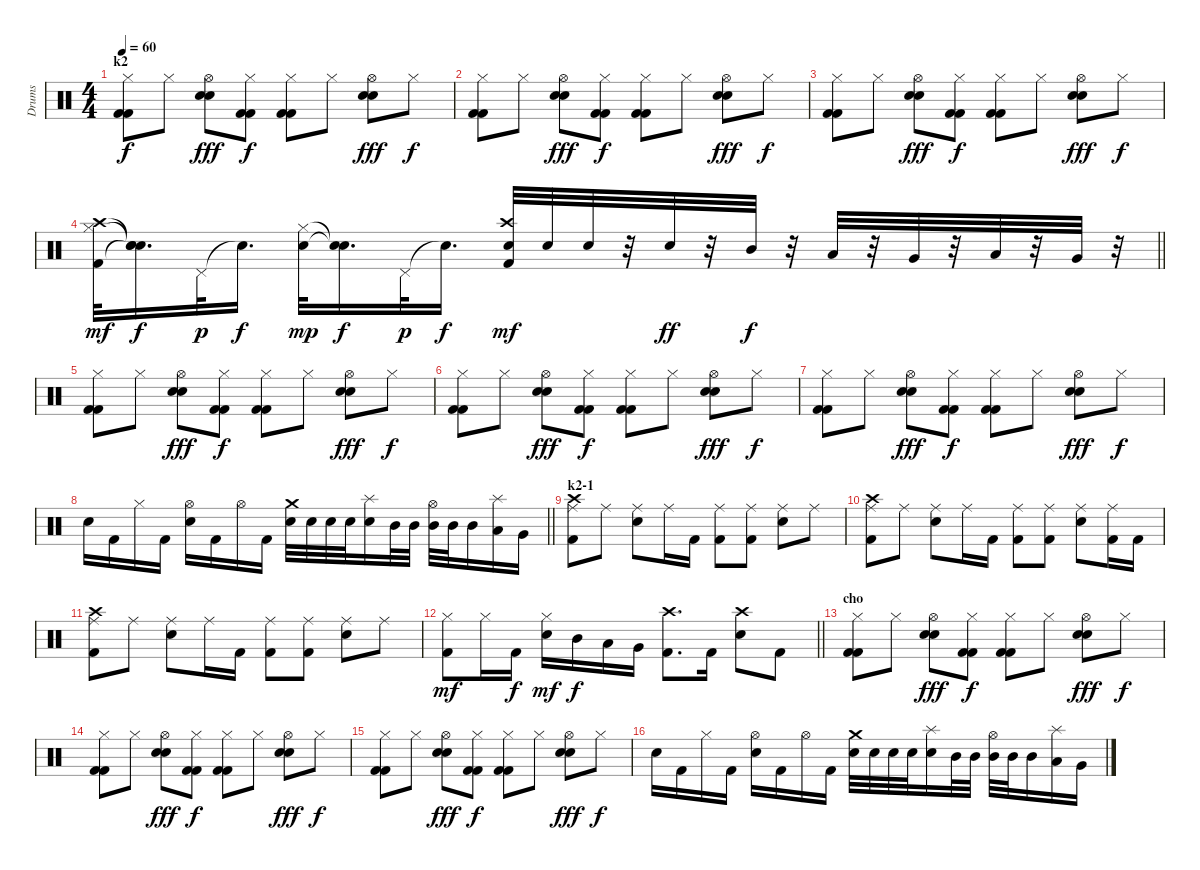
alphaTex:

\track ("Drums" "Drums") {instrument percussion}
\staff {score}
\articulation defaults
\ts (4 4)
\section ("" "k2")
\tempo 60
\clef neutral
\ks c
("Hi-Hat (closed)" "Kick (hit) 2" "Kick (hit) 2").8{dy f} "Hi-Hat (closed)".8 ("Hi-Hat (open)" "Electric Snare (hit)" "Electric Snare (hit)").8{dy fff} ("Hi-Hat (closed)" "Kick (hit) 2" "Kick (hit) 2").8{dy f} ("Hi-Hat (closed)" "Kick (hit) 2" "Kick (hit) 2").8 "Hi-Hat (closed)".8 ("Hi-Hat (open)" "Electric Snare (hit)" "Electric Snare (hit)").8{dy fff} "Hi-Hat (closed)".8{dy f} |
("Hi-Hat (closed)" "Kick (hit) 2" "Kick (hit) 2").8 "Hi-Hat (closed)".8 ("Hi-Hat (open)" "Electric Snare (hit)" "Electric Snare (hit)").8{dy fff} ("Hi-Hat (closed)" "Kick (hit) 2" "Kick (hit) 2").8{dy f} ("Hi-Hat (closed)" "Kick (hit) 2" "Kick (hit) 2").8 "Hi-Hat (closed)".8 ("Hi-Hat (open)" "Electric Snare (hit)" "Electric Snare (hit)").8{dy fff} "Hi-Hat (closed)".8{dy f} |
("Hi-Hat (closed)" "Kick (hit) 2" "Kick (hit) 2").8 "Hi-Hat (closed)".8 ("Hi-Hat (open)" "Electric Snare (hit)" "Electric Snare (hit)").8{dy fff} ("Hi-Hat (closed)" "Kick (hit) 2" "Kick (hit) 2").8{dy f} ("Hi-Hat (closed)" "Kick (hit) 2" "Kick (hit) 2").8 "Hi-Hat (closed)".8 ("Hi-Hat (open)" "Electric Snare (hit)" "Electric Snare (hit)").8{dy fff} "Hi-Hat (closed)".8{dy f} |
\barLineRight lightlight
("Kick (hit) 2" "Hi-Hat (closed)" "Crash high (hit)").32{dy mf} ("Snare (hit)"{t} "Snare (hit)"{t} "Snare (hit)"{t}).16{d dy f} "Pedal Hi-Hat (hit)".32{dy p} "Snare (hit)"{t}.16{d dy f} ("Snare (hit) 2" "Hi-Hat (closed)").32{dy mp} ("Snare (hit)"{t} "Snare (hit)"{t}).16{d dy f} "Pedal Hi-Hat (hit)".32{dy p} "Snare (hit)"{t}.16{d dy f} ("Snare (hit) 2" "Kick (hit) 2" "Crash high (hit)").32{dy mf} "Snare (hit) 2".32 "Snare (hit) 2".32 r.32 "Snare (hit) 2".32{dy ff} r.32 "Mid Tom (hit)".32{dy f} r.32 "Low Tom (hit)".32 r.32 "Very Low Tom (hit)".32 r.32 "Low Floor Tom (hit)".32 r.32 "Very Low Tom (hit)".32 r.32 |
("Hi-Hat (closed)" "Kick (hit) 2" "Kick (hit) 2").8 "Hi-Hat (closed)".8 ("Hi-Hat (open)" "Electric Snare (hit)" "Electric Snare (hit)").8{dy fff} ("Hi-Hat (closed)" "Kick (hit) 2" "Kick (hit) 2").8{dy f} ("Hi-Hat (closed)" "Kick (hit) 2" "Kick (hit) 2").8 "Hi-Hat (closed)".8 ("Hi-Hat (open)" "Electric Snare (hit)" "Electric Snare (hit)").8{dy fff} "Hi-Hat (closed)".8{dy f} |
("Hi-Hat (closed)" "Kick (hit) 2" "Kick (hit) 2").8 "Hi-Hat (closed)".8 ("Hi-Hat (open)" "Electric Snare (hit)" "Electric Snare (hit)").8{dy fff} ("Hi-Hat (closed)" "Kick (hit) 2" "Kick (hit) 2").8{dy f} ("Hi-Hat (closed)" "Kick (hit) 2" "Kick (hit) 2").8 "Hi-Hat (closed)".8 ("Hi-Hat (open)" "Electric Snare (hit)" "Electric Snare (hit)").8{dy fff} "Hi-Hat (closed)".8{dy f} |
("Hi-Hat (closed)" "Kick (hit) 2" "Kick (hit) 2").8 "Hi-Hat (closed)".8 ("Hi-Hat (open)" "Electric Snare (hit)" "Electric Snare (hit)").8{dy fff} ("Hi-Hat (closed)" "Kick (hit) 2" "Kick (hit) 2").8{dy f} ("Hi-Hat (closed)" "Kick (hit) 2" "Kick (hit) 2").8 "Hi-Hat (closed)".8 ("Hi-Hat (open)" "Electric Snare (hit)" "Electric Snare (hit)").8{dy fff} "Hi-Hat (closed)".8{dy f} |
\barLineRight lightlight "Snare (hit) 2".16 "Kick (hit) 2".16 "Hi-Hat (closed)".16 "Kick (hit) 2".16
("Hi-Hat (open)" "Snare (hit) 2").16 "Kick (hit) 2".16 "Hi-Hat (open)".16 "Kick (hit) 2".16 ("Crash medium (hit)" "Snare (hit) 2").32 "Snare (hit) 2".32 "Snare (hit) 2".32 "Snare (hit) 2".32 ("Splash (hit)" "Snare (hit) 2").16 "Mid Tom (hit)".32 "Mid Tom (hit)".32 ("Hi-Hat (open)" "Mid Tom (hit)").32 "Mid Tom (hit)".32 "Mid Tom (hit)".16 ("Splash (hit)" "Low Tom (hit)").16 "Very Low Tom (hit)".16 |
\section ("" "k2-1")
("Kick (hit) 2" "Crash high (hit)" "Ride (middle)").8 "Ride (middle)".8 ("Electric Snare (hit)" "Ride (middle)").8 "Ride (middle)".16 "Kick (hit) 2".16 ("Kick (hit) 2" "Ride (middle)").8 ("Kick (hit) 2" "Ride (middle)").8 ("Electric Snare (hit)" "Ride (middle)").8 "Ride (middle)".8 |
("Kick (hit) 2" "Crash high (hit)" "Ride (middle)").8 "Ride (middle)".8 ("Electric Snare (hit)" "Ride (middle)").8 "Ride (middle)".16 "Kick (hit) 2".16 ("Kick (hit) 2" "Ride (middle)").8 ("Kick (hit) 2" "Ride (middle)").8 ("Electric Snare (hit)" "Ride (middle)").8 ("Kick (hit) 2" "Ride (middle)").16 "Kick (hit) 2".16 |
("Kick (hit) 2" "Crash high (hit)" "Ride (middle)").8 "Ride (middle)".8 ("Electric Snare (hit)" "Ride (middle)").8 "Ride (middle)".16 "Kick (hit) 2".16 ("Kick (hit) 2" "Ride (middle)").8 ("Kick (hit) 2" "Ride (middle)").8 ("Electric Snare (hit)" "Ride (middle)").8 "Ride (middle)".8 |
\barLineRight lightlight
("Hi-Hat (closed)" "Kick (hit) 2").8{dy mf} "Hi-Hat (closed)".16 "Kick (hit) 2".16{dy f} ("Hi-Hat (closed)" "Snare (hit) 2").16{dy mf} "Mid Tom (hit)".16{dy f} "Low Tom (hit)".16 "Very Low Tom (hit)".16 ("Crash high (hit)" "Kick (hit) 2").8{d} "Kick (hit) 2".16 ("Crash high (hit)" "Snare (hit) 2").8 "Kick (hit) 2".8 |
\section ("" "cho")
("Hi-Hat (closed)" "Kick (hit) 2" "Kick (hit) 2").8 "Hi-Hat (closed)".8 ("Hi-Hat (open)" "Electric Snare (hit)" "Electric Snare (hit)").8{dy fff} ("Hi-Hat (closed)" "Kick (hit) 2" "Kick (hit) 2").8{dy f} ("Hi-Hat (closed)" "Kick (hit) 2" "Kick (hit) 2").8 "Hi-Hat (closed)".8 ("Hi-Hat (open)" "Electric Snare (hit)" "Electric Snare (hit)").8{dy fff} "Hi-Hat (closed)".8{dy f} |
("Hi-Hat (closed)" "Kick (hit) 2" "Kick (hit) 2").8 "Hi-Hat (closed)".8 ("Hi-Hat (open)" "Electric Snare (hit)" "Electric Snare (hit)").8{dy fff} ("Hi-Hat (closed)" "Kick (hit) 2" "Kick (hit) 2").8{dy f} ("Hi-Hat (closed)" "Kick (hit) 2" "Kick (hit) 2").8 "Hi-Hat (closed)".8 ("Hi-Hat (open)" "Electric Snare (hit)" "Electric Snare (hit)").8{dy fff} "Hi-Hat (closed)".8{dy f} |
("Hi-Hat (closed)" "Kick (hit) 2" "Kick (hit) 2").8 "Hi-Hat (closed)".8 ("Hi-Hat (open)" "Electric Snare (hit)" "Electric Snare (hit)").8{dy fff} ("Hi-Hat (closed)" "Kick (hit) 2" "Kick (hit) 2").8{dy f} ("Hi-Hat (closed)" "Kick (hit) 2" "Kick (hit) 2").8 "Hi-Hat (closed)".8 ("Hi-Hat (open)" "Electric Snare (hit)" "Electric Snare (hit)").8{dy fff} "Hi-Hat (closed)".8{dy f} |
"Snare (hit) 2".16 "Kick (hit) 2".16 "Hi-Hat (closed)".16 "Kick (hit) 2".16 ("Hi-Hat (open)" "Snare (hit) 2").16 "Kick (hit) 2".16 "Hi-Hat (open)".16 "Kick (hit) 2".16 ("Crash medium (hit)" "Snare (hit) 2").32 "Snare (hit) 2".32 "Snare (hit) 2".32 "Snare (hit) 2".32 ("Splash (hit)" "Snare (hit) 2").16 "Mid Tom (hit)".32 "Mid Tom (hit)".32 ("Hi-Hat (open)" "Mid Tom (hit)").32 "Mid Tom (hit)".32 "Mid Tom (hit)".16 ("Splash (hit)" "Low Tom (hit)").16 "Very Low Tom (hit)".16
